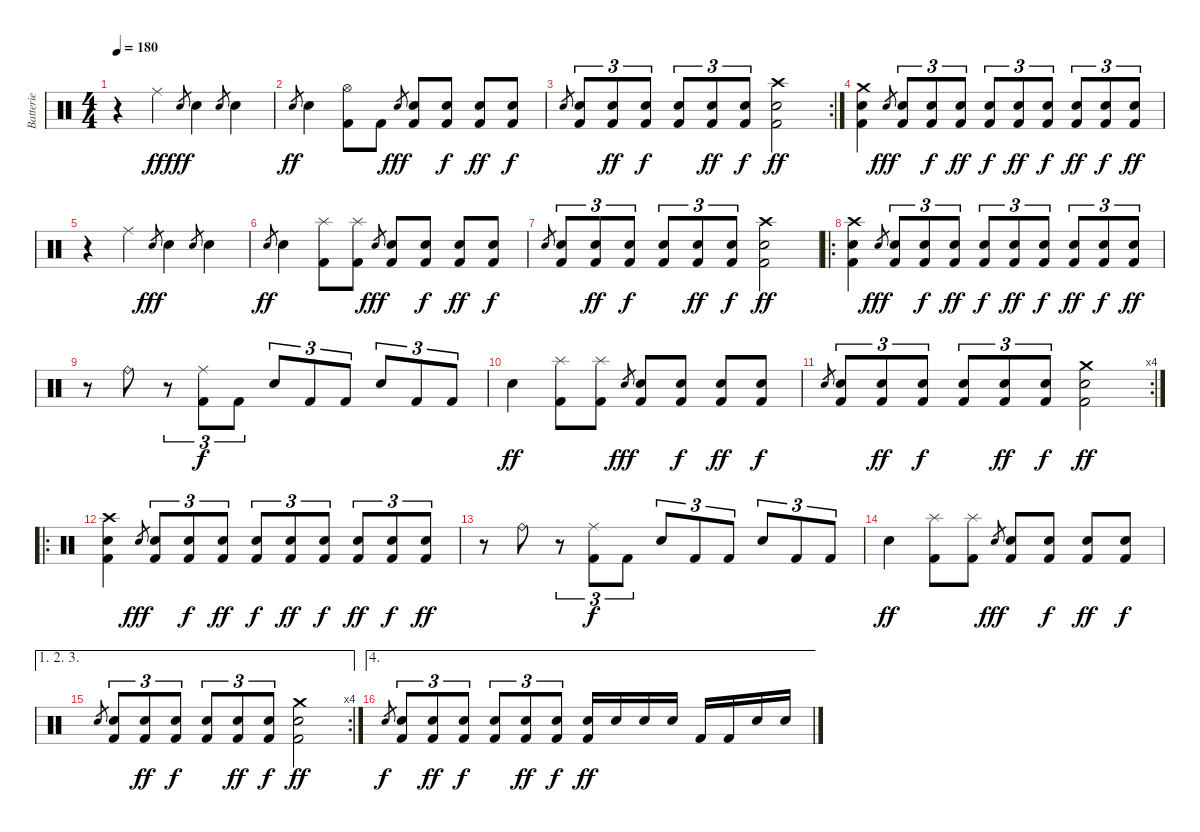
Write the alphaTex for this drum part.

\track ("Batterie" "Batterie") {instrument percussion}
\staff {score}
\articulation defaults
\ts (4 4)
\tempo 180
\clef neutral
\ks c
r.4{dy ff} "Ride (middle)".4 "Electric Snare (hit)".8{gr dy fff} "Electric Snare (hit)".4 "Electric Snare (hit)".8{gr} "Electric Snare (hit)".4 |
"Electric Snare (hit)".8{gr dy ff} "Electric Snare (hit)".4 ("Hi-Hat (open)" "Kick (hit) 2").8 "Kick (hit) 2".8 "Electric Snare (hit)".8{gr dy fff} ("Electric Snare (hit)" "Kick (hit) 2").8 ("Electric Snare (hit)" "Kick (hit) 2").8{dy f} ("Electric Snare (hit)" "Kick (hit) 2").8{dy ff} ("Electric Snare (hit)" "Kick (hit) 2").8{dy f} |
\rc 2 "Electric Snare (hit)".8{gr}
("Electric Snare (hit)" "Kick (hit) 2").8{tu (3 2)} ("Electric Snare (hit)" "Kick (hit) 2").8{tu (3 2) dy ff} ("Electric Snare (hit)" "Kick (hit) 2").8{tu (3 2) dy f} ("Electric Snare (hit)" "Kick (hit) 2").8{tu (3 2)} ("Electric Snare (hit)" "Kick (hit) 2").8{tu (3 2) dy ff} ("Electric Snare (hit)" "Kick (hit) 2").8{tu (3 2) dy f} ("Crash high (hit)" "Electric Snare (hit)" "Kick (hit) 2").2{dy ff} |
("Crash medium (hit)" "Electric Snare (hit)" "Kick (hit) 2").4 "Electric Snare (hit)".8{gr dy fff} ("Electric Snare (hit)" "Kick (hit) 2").8{tu (3 2)} ("Electric Snare (hit)" "Kick (hit) 2").8{tu (3 2) dy f} ("Electric Snare (hit)" "Kick (hit) 2").8{tu (3 2) dy ff} ("Electric Snare (hit)" "Kick (hit) 2").8{tu (3 2) dy f} ("Electric Snare (hit)" "Kick (hit) 2").8{tu (3 2) dy ff} ("Electric Snare (hit)" "Kick (hit) 2").8{tu (3 2) dy f} ("Electric Snare (hit)" "Kick (hit) 2").8{tu (3 2) dy ff} ("Electric Snare (hit)" "Kick (hit) 2").8{tu (3 2) dy f} ("Electric Snare (hit)" "Kick (hit) 2").8{tu (3 2) dy ff} |
r.4 "Ride (middle)".4 "Electric Snare (hit)".8{gr dy fff} "Electric Snare (hit)".4 "Electric Snare (hit)".8{gr} "Electric Snare (hit)".4 |
"Electric Snare (hit)".8{gr dy ff} "Electric Snare (hit)".4 ("Splash (hit)" "Kick (hit) 2").8 ("Splash (hit)" "Kick (hit) 2").8 "Electric Snare (hit)".8{gr dy fff} ("Electric Snare (hit)" "Kick (hit) 2").8 ("Electric Snare (hit)" "Kick (hit) 2").8{dy f} ("Electric Snare (hit)" "Kick (hit) 2").8{dy ff} ("Electric Snare (hit)" "Kick (hit) 2").8{dy f} |
"Electric Snare (hit)".8{gr} ("Electric Snare (hit)" "Kick (hit) 2").8{tu (3 2)} ("Electric Snare (hit)" "Kick (hit) 2").8{tu (3 2) dy ff} ("Electric Snare (hit)" "Kick (hit) 2").8{tu (3 2) dy f} ("Electric Snare (hit)" "Kick (hit) 2").8{tu (3 2)} ("Electric Snare (hit)" "Kick (hit) 2").8{tu (3 2) dy ff} ("Electric Snare (hit)" "Kick (hit) 2").8{tu (3 2) dy f} ("Crash high (hit)" "Electric Snare (hit)" "Kick (hit) 2").2{dy ff} |
\ro
("Crash high (hit)" "Electric Snare (hit)" "Kick (hit) 2").4 "Electric Snare (hit)".8{gr dy fff} ("Electric Snare (hit)" "Kick (hit) 2").8{tu (3 2)} ("Electric Snare (hit)" "Kick (hit) 2").8{tu (3 2) dy f} ("Electric Snare (hit)" "Kick (hit) 2").8{tu (3 2) dy ff} ("Electric Snare (hit)" "Kick (hit) 2").8{tu (3 2) dy f} ("Electric Snare (hit)" "Kick (hit) 2").8{tu (3 2) dy ff} ("Electric Snare (hit)" "Kick (hit) 2").8{tu (3 2) dy f} ("Electric Snare (hit)" "Kick (hit) 2").8{tu (3 2) dy ff} ("Electric Snare (hit)" "Kick (hit) 2").8{tu (3 2) dy f} ("Electric Snare (hit)" "Kick (hit) 2").8{tu (3 2) dy ff} |
r.8 "Ride (bell)".8 r.8{tu (3 2)} ("Ride (middle)" "Kick (hit) 2").8{tu (3 2) dy f} "Kick (hit) 2".8{tu (3 2)} "Electric Snare (hit)".8{tu (3 2)} "Kick (hit) 2".8{tu (3 2)} "Kick (hit) 2".8{tu (3 2)} "Electric Snare (hit)".8{tu (3 2)} "Kick (hit) 2".8{tu (3 2)} "Kick (hit) 2".8{tu (3 2)} |
"Electric Snare (hit)".4{dy ff} ("Splash (hit)" "Kick (hit) 2").8 ("Splash (hit)" "Kick (hit) 2").8 "Electric Snare (hit)".8{gr dy fff} ("Electric Snare (hit)" "Kick (hit) 2").8 ("Electric Snare (hit)" "Kick (hit) 2").8{dy f} ("Electric Snare (hit)" "Kick (hit) 2").8{dy ff} ("Electric Snare (hit)" "Kick (hit) 2").8{dy f} |
\rc 4 "Electric Snare (hit)".8{gr}
("Electric Snare (hit)" "Kick (hit) 2").8{tu (3 2)} ("Electric Snare (hit)" "Kick (hit) 2").8{tu (3 2) dy ff} ("Electric Snare (hit)" "Kick (hit) 2").8{tu (3 2) dy f} ("Electric Snare (hit)" "Kick (hit) 2").8{tu (3 2)} ("Electric Snare (hit)" "Kick (hit) 2").8{tu (3 2) dy ff} ("Electric Snare (hit)" "Kick (hit) 2").8{tu (3 2) dy f} ("Crash medium (hit)" "Electric Snare (hit)" "Kick (hit) 2").2{dy ff} |
\ro
("Crash high (hit)" "Electric Snare (hit)" "Kick (hit) 2").4 "Electric Snare (hit)".8{gr dy fff} ("Electric Snare (hit)" "Kick (hit) 2").8{tu (3 2)} ("Electric Snare (hit)" "Kick (hit) 2").8{tu (3 2) dy f} ("Electric Snare (hit)" "Kick (hit) 2").8{tu (3 2) dy ff} ("Electric Snare (hit)" "Kick (hit) 2").8{tu (3 2) dy f} ("Electric Snare (hit)" "Kick (hit) 2").8{tu (3 2) dy ff} ("Electric Snare (hit)" "Kick (hit) 2").8{tu (3 2) dy f} ("Electric Snare (hit)" "Kick (hit) 2").8{tu (3 2) dy ff} ("Electric Snare (hit)" "Kick (hit) 2").8{tu (3 2) dy f} ("Electric Snare (hit)" "Kick (hit) 2").8{tu (3 2) dy ff} |
r.8 "Ride (bell)".8 r.8{tu (3 2)} ("Ride (middle)" "Kick (hit) 2").8{tu (3 2) dy f} "Kick (hit) 2".8{tu (3 2)} "Electric Snare (hit)".8{tu (3 2)} "Kick (hit) 2".8{tu (3 2)} "Kick (hit) 2".8{tu (3 2)} "Electric Snare (hit)".8{tu (3 2)} "Kick (hit) 2".8{tu (3 2)} "Kick (hit) 2".8{tu (3 2)} |
"Electric Snare (hit)".4{dy ff} ("Splash (hit)" "Kick (hit) 2").8 ("Splash (hit)" "Kick (hit) 2").8 "Electric Snare (hit)".8{gr dy fff} ("Electric Snare (hit)" "Kick (hit) 2").8 ("Electric Snare (hit)" "Kick (hit) 2").8{dy f} ("Electric Snare (hit)" "Kick (hit) 2").8{dy ff} ("Electric Snare (hit)" "Kick (hit) 2").8{dy f} |
\ae (1 2 3)
\rc 4 "Electric Snare (hit)".8{gr}
("Electric Snare (hit)" "Kick (hit) 2").8{tu (3 2)} ("Electric Snare (hit)" "Kick (hit) 2").8{tu (3 2) dy ff} ("Electric Snare (hit)" "Kick (hit) 2").8{tu (3 2) dy f} ("Electric Snare (hit)" "Kick (hit) 2").8{tu (3 2)} ("Electric Snare (hit)" "Kick (hit) 2").8{tu (3 2) dy ff} ("Electric Snare (hit)" "Kick (hit) 2").8{tu (3 2) dy f} ("Crash medium (hit)" "Electric Snare (hit)" "Kick (hit) 2").2{dy ff} |
\ae 4 "Electric Snare (hit)".8{gr dy f}
("Electric Snare (hit)" "Kick (hit) 2").8{tu (3 2)} ("Electric Snare (hit)" "Kick (hit) 2").8{tu (3 2) dy ff} ("Electric Snare (hit)" "Kick (hit) 2").8{tu (3 2) dy f} ("Electric Snare (hit)" "Kick (hit) 2").8{tu (3 2)} ("Electric Snare (hit)" "Kick (hit) 2").8{tu (3 2) dy ff} ("Electric Snare (hit)" "Kick (hit) 2").8{tu (3 2) dy f} ("Electric Snare (hit)" "Kick (hit) 2").16{dy ff} "Electric Snare (hit)".16 "Electric Snare (hit)".16 "Electric Snare (hit)".16 "Kick (hit) 2".16 "Kick (hit) 2".16 "Electric Snare (hit)".16 "Electric Snare (hit)".16
